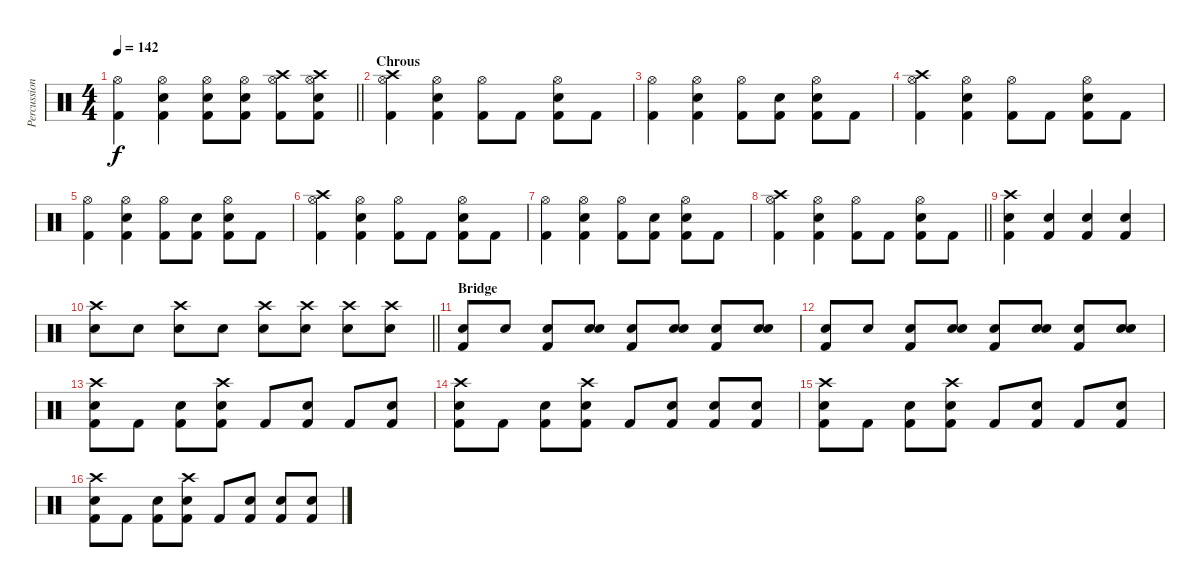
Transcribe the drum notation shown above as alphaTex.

\track ("Percussion" "Percussion") {instrument percussion}
\staff {score}
\articulation defaults
\ts (4 4)
\tempo 142
\clef neutral
\barLineRight lightlight
\ks c
("Hi-Hat (open)" "Kick (hit) 2").4{dy f} ("Hi-Hat (open)" "Snare (hit) 2" "Kick (hit) 2").4 ("Hi-Hat (open)" "Snare (hit) 2" "Kick (hit) 2").8 ("Hi-Hat (open)" "Snare (hit) 2" "Kick (hit) 2").8 ("Crash high (hit)" "Hi-Hat (open)" "Kick (hit) 2").8 ("Crash high (hit)" "Hi-Hat (open)" "Snare (hit) 2" "Kick (hit) 2").8 |
\section ("" "Chrous")
("Crash high (hit)" "Hi-Hat (open)" "Kick (hit) 2").4 ("Hi-Hat (open)" "Snare (hit) 2" "Kick (hit) 2").4 ("Hi-Hat (open)" "Kick (hit) 2").8 "Kick (hit) 2".8 ("Hi-Hat (open)" "Snare (hit) 2" "Kick (hit) 2").8 "Kick (hit) 2".8 |
("Hi-Hat (open)" "Kick (hit) 2").4 ("Hi-Hat (open)" "Snare (hit) 2" "Kick (hit) 2").4 ("Hi-Hat (open)" "Kick (hit) 2").8 ("Snare (hit) 2" "Kick (hit) 2").8 ("Hi-Hat (open)" "Snare (hit) 2" "Kick (hit) 2").8 "Kick (hit) 2".8 |
("Crash high (hit)" "Hi-Hat (open)" "Kick (hit) 2").4 ("Hi-Hat (open)" "Snare (hit) 2" "Kick (hit) 2").4 ("Hi-Hat (open)" "Kick (hit) 2").8 "Kick (hit) 2".8 ("Hi-Hat (open)" "Snare (hit) 2" "Kick (hit) 2").8 "Kick (hit) 2".8 |
("Hi-Hat (open)" "Kick (hit) 2").4 ("Hi-Hat (open)" "Snare (hit) 2" "Kick (hit) 2").4 ("Hi-Hat (open)" "Kick (hit) 2").8 ("Snare (hit) 2" "Kick (hit) 2").8 ("Hi-Hat (open)" "Snare (hit) 2" "Kick (hit) 2").8 "Kick (hit) 2".8 |
("Crash high (hit)" "Hi-Hat (open)" "Kick (hit) 2").4 ("Hi-Hat (open)" "Snare (hit) 2" "Kick (hit) 2").4 ("Hi-Hat (open)" "Kick (hit) 2").8 "Kick (hit) 2".8 ("Hi-Hat (open)" "Snare (hit) 2" "Kick (hit) 2").8 "Kick (hit) 2".8 |
("Hi-Hat (open)" "Kick (hit) 2").4 ("Hi-Hat (open)" "Snare (hit) 2" "Kick (hit) 2").4 ("Hi-Hat (open)" "Kick (hit) 2").8 ("Snare (hit) 2" "Kick (hit) 2").8 ("Hi-Hat (open)" "Snare (hit) 2" "Kick (hit) 2").8 "Kick (hit) 2".8 |
\barLineRight lightlight
("Crash high (hit)" "Hi-Hat (open)" "Kick (hit) 2").4 ("Hi-Hat (open)" "Snare (hit) 2" "Kick (hit) 2").4 ("Hi-Hat (open)" "Kick (hit) 2").8 "Kick (hit) 2".8 ("Hi-Hat (open)" "Snare (hit) 2" "Kick (hit) 2").8 "Kick (hit) 2".8 |
("Crash high (hit)" "Snare (hit) 2" "Kick (hit) 2").4 ("Snare (hit) 2" "Kick (hit) 2").4 ("Snare (hit) 2" "Kick (hit) 2").4 ("Snare (hit) 2" "Kick (hit) 2").4 |
\barLineRight lightlight
("Crash high (hit)" "Snare (hit) 2").8 "Snare (hit) 2".8 ("Crash high (hit)" "Snare (hit) 2").8 "Snare (hit) 2".8 ("Crash high (hit)" "Snare (hit) 2").8 ("Crash high (hit)" "Snare (hit) 2").8 ("Crash high (hit)" "Snare (hit) 2").8 ("Crash high (hit)" "Snare (hit) 2").8 |
\section ("" "Bridge")
("Electric Snare (hit)" "Kick (hit) 2").8 "Snare (hit)".8 ("Electric Snare (hit)" "Kick (hit) 2").8 ("Snare (hit)" "Snare (hit)").8 ("Electric Snare (hit)" "Kick (hit) 2").8 ("Snare (hit)" "Snare (hit)").8 ("Electric Snare (hit)" "Kick (hit) 2").8 ("Snare (hit)" "Snare (hit)").8 |
("Electric Snare (hit)" "Kick (hit) 2").8 "Snare (hit)".8 ("Electric Snare (hit)" "Kick (hit) 2").8 ("Snare (hit)" "Snare (hit)").8 ("Electric Snare (hit)" "Kick (hit) 2").8 ("Electric Snare (hit)" "Snare (hit)").8 ("Electric Snare (hit)" "Kick (hit) 2").8 ("Electric Snare (hit)" "Snare (hit)").8 |
("Crash high (hit)" "Kick (hit) 2" "Snare (hit) 2").8 "Kick (hit) 2".8 ("Kick (hit) 2" "Snare (hit) 2").8 ("Crash high (hit)" "Kick (hit) 2" "Snare (hit) 2").8 "Kick (hit) 2".8 ("Kick (hit) 2" "Snare (hit) 2").8 "Kick (hit) 2".8 ("Kick (hit) 2" "Snare (hit) 2").8 |
("Crash high (hit)" "Kick (hit) 2" "Snare (hit) 2").8 "Kick (hit) 2".8 ("Kick (hit) 2" "Snare (hit) 2").8 ("Crash high (hit)" "Kick (hit) 2" "Snare (hit) 2").8 "Kick (hit) 2".8 ("Kick (hit) 2" "Snare (hit) 2").8 ("Kick (hit) 2" "Snare (hit) 2").8 ("Kick (hit) 2" "Snare (hit) 2").8 |
("Crash high (hit)" "Kick (hit) 2" "Snare (hit) 2").8 "Kick (hit) 2".8 ("Kick (hit) 2" "Snare (hit) 2").8 ("Crash high (hit)" "Kick (hit) 2" "Snare (hit) 2").8 "Kick (hit) 2".8 ("Kick (hit) 2" "Snare (hit) 2").8 "Kick (hit) 2".8 ("Kick (hit) 2" "Snare (hit) 2").8 |
("Crash high (hit)" "Kick (hit) 2" "Snare (hit) 2").8 "Kick (hit) 2".8 ("Kick (hit) 2" "Snare (hit) 2").8 ("Crash high (hit)" "Kick (hit) 2" "Snare (hit) 2").8 "Kick (hit) 2".8 ("Kick (hit) 2" "Snare (hit) 2").8 ("Kick (hit) 2" "Snare (hit) 2").8 ("Kick (hit) 2" "Snare (hit) 2").8
